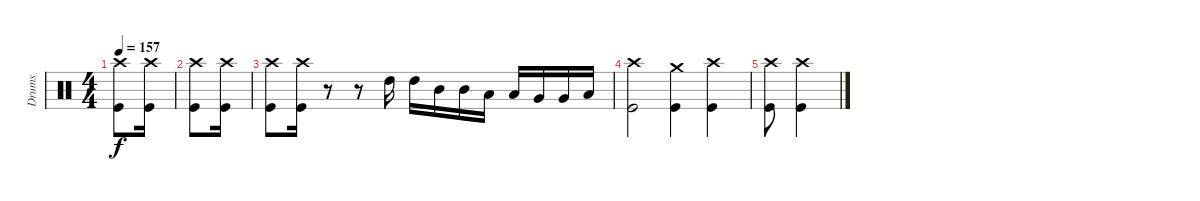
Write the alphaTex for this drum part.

\track ("Drums" "Drums") {instrument percussion}
\staff {score}
\articulation defaults
\ts (4 4)
\tempo 157
\clef neutral
\ks c
("Crash high (hit)" "Kick (hit)").8{dy f} ("Crash high (hit)" "Kick (hit)").16 |
("Crash high (hit)" "Kick (hit)").8 ("Crash high (hit)" "Kick (hit)").16 |
("Crash high (hit)" "Kick (hit)").8 ("Crash high (hit)" "Kick (hit)").16 r.8 r.8 "High Tom (hit)".16 "High Tom (hit)".16 "Mid Tom (hit)".16 "Mid Tom (hit)".16 "Low Tom (hit)".16 "Low Tom (hit)".16 "Very Low Tom (hit)".16 "Very Low Tom (hit)".16 "Low Floor Tom (hit)".16 |
("Crash high (hit)" "Kick (hit)").2 ("Crash medium (hit)" "Kick (hit)").4 ("Crash high (hit)" "Kick (hit)").4 |
("Crash high (hit)" "Kick (hit)").8 ("Crash high (hit)" "Kick (hit)").4
